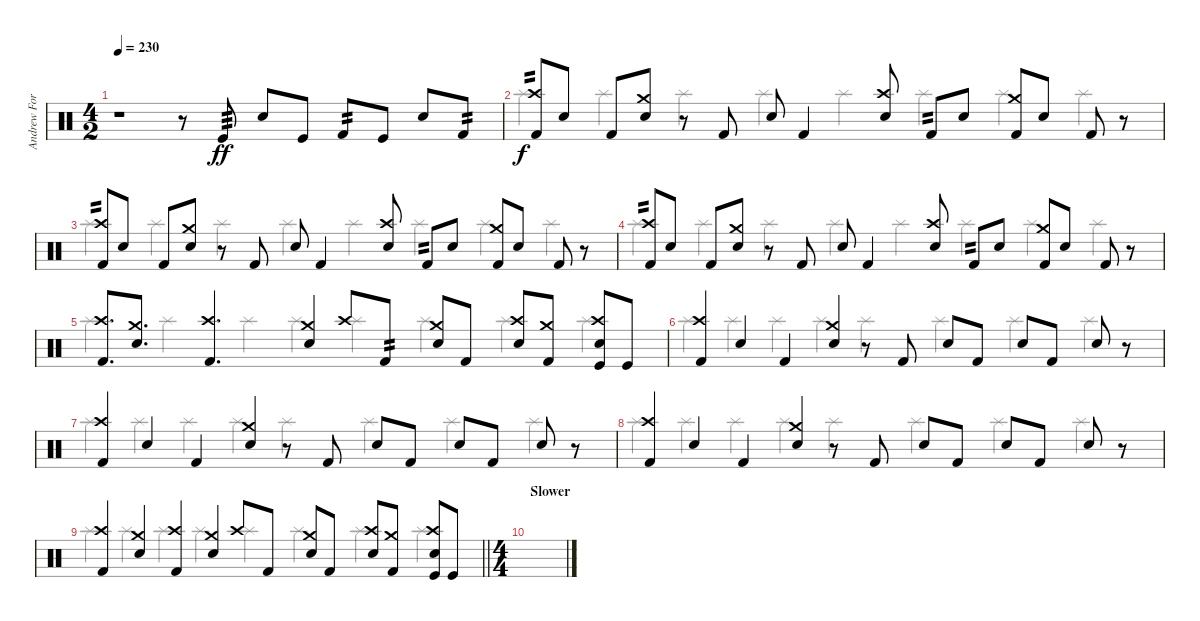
\track ("Andrew Forsman" "Andrew For") {instrument percussion}
\staff {score}
\articulation defaults
\voice
\ts (4 2)
\tempo 230
\clef neutral
\ks c
r.1{dy f} r.8 "Kick (hit)".8{tp 3 dy ff} "Snare (hit) 2".8 "Kick (hit)".8 "Kick (hit) 2".8{tp 2} "Kick (hit)".8 "Snare (hit) 2".8 "Kick (hit) 2".8{tp 2} |
("Kick (hit) 2" "Crash high (hit)").8{tp 2 dy f} "Snare (hit) 2".8 "Kick (hit) 2".8 ("Snare (hit) 2" "Crash medium (hit)").8 r.8 "Kick (hit) 2".8 "Snare (hit) 2".8 "Kick (hit) 2".4 ("Snare (hit) 2" "Crash high (hit)").8 "Kick (hit) 2".8{tp 2} "Snare (hit) 2".8 ("Kick (hit) 2" "Crash medium (hit)").8 "Snare (hit) 2".8 "Kick (hit) 2".8 r.8 |
("Kick (hit) 2" "Crash high (hit)").8{tp 2} "Snare (hit) 2".8 "Kick (hit) 2".8 ("Snare (hit) 2" "Crash medium (hit)").8 r.8 "Kick (hit) 2".8 "Snare (hit) 2".8 "Kick (hit) 2".4 ("Snare (hit) 2" "Crash high (hit)").8 "Kick (hit) 2".8{tp 2} "Snare (hit) 2".8 ("Kick (hit) 2" "Crash medium (hit)").8 "Snare (hit) 2".8 "Kick (hit) 2".8 r.8 |
("Kick (hit) 2" "Crash high (hit)").8{tp 2} "Snare (hit) 2".8 "Kick (hit) 2".8 ("Snare (hit) 2" "Crash medium (hit)").8 r.8 "Kick (hit) 2".8 "Snare (hit) 2".8 "Kick (hit) 2".4 ("Snare (hit) 2" "Crash high (hit)").8 "Kick (hit) 2".8{tp 2} "Snare (hit) 2".8 ("Kick (hit) 2" "Crash medium (hit)").8 "Snare (hit) 2".8 "Kick (hit) 2".8 r.8 |
("Kick (hit) 2" "Crash high (hit)").8{d} ("Snare (hit) 2" "Crash medium (hit)").8{d} ("Kick (hit) 2" "Crash high (hit)").4{d} ("Snare (hit) 2" "Crash medium (hit)").4 "Crash high (hit)".8 "Kick (hit) 2".8{tp 2} ("Snare (hit) 2" "Crash medium (hit)").8 "Kick (hit) 2".8 ("Snare (hit) 2" "Crash high (hit)").8 ("Kick (hit) 2" "Crash medium (hit)").8 ("Kick (hit)" "Snare (hit) 2" "Crash high (hit)").8 "Kick (hit)".8 |
("Kick (hit) 2" "Crash high (hit)").4 "Snare (hit) 2".4 "Kick (hit) 2".4 ("Snare (hit) 2" "Crash medium (hit)").4 r.8 "Kick (hit) 2".8 "Snare (hit) 2".8 "Kick (hit) 2".8 "Snare (hit) 2".8 "Kick (hit) 2".8 "Snare (hit) 2".8 r.8 |
("Kick (hit) 2" "Crash high (hit)").4 "Snare (hit) 2".4 "Kick (hit) 2".4 ("Snare (hit) 2" "Crash medium (hit)").4 r.8 "Kick (hit) 2".8 "Snare (hit) 2".8 "Kick (hit) 2".8 "Snare (hit) 2".8 "Kick (hit) 2".8 "Snare (hit) 2".8 r.8 |
("Kick (hit) 2" "Crash high (hit)").4 "Snare (hit) 2".4 "Kick (hit) 2".4 ("Snare (hit) 2" "Crash medium (hit)").4 r.8 "Kick (hit) 2".8 "Snare (hit) 2".8 "Kick (hit) 2".8 "Snare (hit) 2".8 "Kick (hit) 2".8 "Snare (hit) 2".8 r.8 |
\barLineRight lightlight
("Kick (hit) 2" "Crash high (hit)").4 ("Snare (hit) 2" "Crash medium (hit)").4 ("Kick (hit) 2" "Crash high (hit)").4 ("Snare (hit) 2" "Crash medium (hit)").4 "Crash high (hit)".8 "Kick (hit) 2".8 ("Snare (hit) 2" "Crash medium (hit)").8 "Kick (hit) 2".8 ("Snare (hit) 2" "Crash high (hit)").8 ("Kick (hit) 2" "Crash medium (hit)").8 ("Kick (hit)" "Snare (hit) 2" "Crash high (hit)").8 "Kick (hit)".8 |
\ts (4 4)
\section ("" "Slower")
|
|
|
|
|
|
\voice
\clef neutral
\ottava regular
\simile none
\ks c
|
"Splash (hit)".4 "Splash (hit)".4 "Splash (hit)".4 "Splash (hit)".4 "Splash (hit)".4 "Splash (hit)".4 "Splash (hit)".4 "Splash (hit)".4 |
"Splash (hit)".4 "Splash (hit)".4 "Splash (hit)".4 "Splash (hit)".4 "Splash (hit)".4 "Splash (hit)".4 "Splash (hit)".4 "Splash (hit)".4 |
"Splash (hit)".4 "Splash (hit)".4 "Splash (hit)".4 "Splash (hit)".4 "Splash (hit)".4 "Splash (hit)".4 "Splash (hit)".4 "Splash (hit)".4 |
"Splash (hit)".4 "Splash (hit)".4 "Splash (hit)".4 "Splash (hit)".4 "Splash (hit)".4 "Splash (hit)".4 "Splash (hit)".4 "Splash (hit)".4 |
"Splash (hit)".4 "Splash (hit)".4 "Splash (hit)".4 "Splash (hit)".4 "Splash (hit)".4 "Splash (hit)".4 "Splash (hit)".4 "Splash (hit)".4 |
"Splash (hit)".4 "Splash (hit)".4 "Splash (hit)".4 "Splash (hit)".4 "Splash (hit)".4 "Splash (hit)".4 "Splash (hit)".4 "Splash (hit)".4 |
"Splash (hit)".4 "Splash (hit)".4 "Splash (hit)".4 "Splash (hit)".4 "Splash (hit)".4 "Splash (hit)".4 "Splash (hit)".4 "Splash (hit)".4 |
\barLineRight lightlight "Splash (hit)".4 "Splash (hit)".4 "Splash (hit)".4 "Splash (hit)".4 "Splash (hit)".4 "Splash (hit)".4 "Splash (hit)".4 "Splash (hit)".4
|
|
|
|
|
|
|
